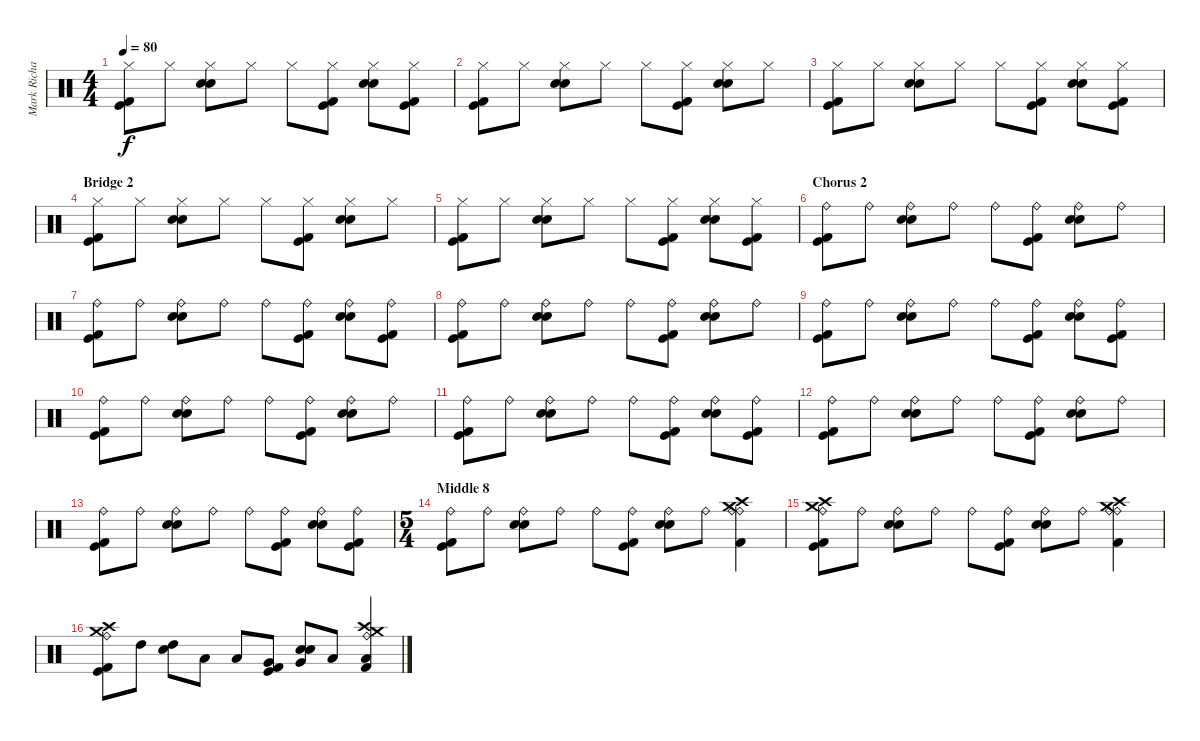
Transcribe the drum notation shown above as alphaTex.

\track ("Mark Richardson (Drums)" "Mark Richa") {instrument percussion}
\staff {score}
\articulation defaults
\ts (4 4)
\tempo 80
\clef neutral
\ks c
("Kick (hit) 2" "Kick (hit)" "Hi-Hat (closed)").8{dy f} "Hi-Hat (closed)".8 ("Electric Snare (hit)" "Snare (hit) 2" "Hi-Hat (closed)").8 "Hi-Hat (closed)".8 "Hi-Hat (closed)".8 ("Kick (hit) 2" "Kick (hit)" "Hi-Hat (closed)").8 ("Electric Snare (hit)" "Snare (hit) 2" "Hi-Hat (closed)").8 ("Kick (hit) 2" "Kick (hit)" "Hi-Hat (closed)").8 |
("Kick (hit) 2" "Kick (hit)" "Hi-Hat (closed)").8 "Hi-Hat (closed)".8 ("Electric Snare (hit)" "Snare (hit) 2" "Hi-Hat (closed)").8 "Hi-Hat (closed)".8 "Hi-Hat (closed)".8 ("Kick (hit) 2" "Kick (hit)" "Hi-Hat (closed)").8 ("Electric Snare (hit)" "Snare (hit) 2" "Hi-Hat (closed)").8 "Hi-Hat (closed)".8 |
("Kick (hit) 2" "Kick (hit)" "Hi-Hat (closed)").8 "Hi-Hat (closed)".8 ("Electric Snare (hit)" "Snare (hit) 2" "Hi-Hat (closed)").8 "Hi-Hat (closed)".8 "Hi-Hat (closed)".8 ("Kick (hit) 2" "Kick (hit)" "Hi-Hat (closed)").8 ("Electric Snare (hit)" "Snare (hit) 2" "Hi-Hat (closed)").8 ("Kick (hit) 2" "Kick (hit)" "Hi-Hat (closed)").8 |
\section ("" "Bridge 2")
("Kick (hit) 2" "Kick (hit)" "Hi-Hat (closed)").8 "Hi-Hat (closed)".8 ("Electric Snare (hit)" "Snare (hit) 2" "Hi-Hat (closed)").8 "Hi-Hat (closed)".8 "Hi-Hat (closed)".8 ("Kick (hit) 2" "Kick (hit)" "Hi-Hat (closed)").8 ("Electric Snare (hit)" "Snare (hit) 2" "Hi-Hat (closed)").8 "Hi-Hat (closed)".8 |
("Kick (hit) 2" "Kick (hit)" "Hi-Hat (closed)").8 "Hi-Hat (closed)".8 ("Electric Snare (hit)" "Snare (hit) 2" "Hi-Hat (closed)").8 "Hi-Hat (closed)".8 "Hi-Hat (closed)".8 ("Kick (hit) 2" "Kick (hit)" "Hi-Hat (closed)").8 ("Electric Snare (hit)" "Snare (hit) 2" "Hi-Hat (closed)").8 ("Kick (hit) 2" "Kick (hit)" "Hi-Hat (closed)").8 |
\section ("" "Chorus 2")
("Kick (hit) 2" "Kick (hit)" "Ride (bell)").8 "Ride (bell)".8 ("Electric Snare (hit)" "Snare (hit) 2" "Ride (bell)").8 "Ride (bell)".8 "Ride (bell)".8 ("Kick (hit) 2" "Kick (hit)" "Ride (bell)").8 ("Electric Snare (hit)" "Snare (hit) 2" "Ride (bell)").8 "Ride (bell)".8 |
("Kick (hit) 2" "Kick (hit)" "Ride (bell)").8 "Ride (bell)".8 ("Electric Snare (hit)" "Snare (hit) 2" "Ride (bell)").8 "Ride (bell)".8 "Ride (bell)".8 ("Kick (hit) 2" "Kick (hit)" "Ride (bell)").8 ("Electric Snare (hit)" "Snare (hit) 2" "Ride (bell)").8 ("Kick (hit) 2" "Kick (hit)" "Ride (bell)").8 |
("Kick (hit) 2" "Kick (hit)" "Ride (bell)").8 "Ride (bell)".8 ("Electric Snare (hit)" "Snare (hit) 2" "Ride (bell)").8 "Ride (bell)".8 "Ride (bell)".8 ("Kick (hit) 2" "Kick (hit)" "Ride (bell)").8 ("Electric Snare (hit)" "Snare (hit) 2" "Ride (bell)").8 "Ride (bell)".8 |
("Kick (hit) 2" "Kick (hit)" "Ride (bell)").8 "Ride (bell)".8 ("Electric Snare (hit)" "Snare (hit) 2" "Ride (bell)").8 "Ride (bell)".8 "Ride (bell)".8 ("Kick (hit) 2" "Kick (hit)" "Ride (bell)").8 ("Electric Snare (hit)" "Snare (hit) 2" "Ride (bell)").8 ("Kick (hit) 2" "Kick (hit)" "Ride (bell)").8 |
("Kick (hit) 2" "Kick (hit)" "Ride (bell)").8 "Ride (bell)".8 ("Electric Snare (hit)" "Snare (hit) 2" "Ride (bell)").8 "Ride (bell)".8 "Ride (bell)".8 ("Kick (hit) 2" "Kick (hit)" "Ride (bell)").8 ("Electric Snare (hit)" "Snare (hit) 2" "Ride (bell)").8 "Ride (bell)".8 |
("Kick (hit) 2" "Kick (hit)" "Ride (bell)").8 "Ride (bell)".8 ("Electric Snare (hit)" "Snare (hit) 2" "Ride (bell)").8 "Ride (bell)".8 "Ride (bell)".8 ("Kick (hit) 2" "Kick (hit)" "Ride (bell)").8 ("Electric Snare (hit)" "Snare (hit) 2" "Ride (bell)").8 ("Kick (hit) 2" "Kick (hit)" "Ride (bell)").8 |
("Kick (hit) 2" "Kick (hit)" "Ride (bell)").8 "Ride (bell)".8 ("Electric Snare (hit)" "Snare (hit) 2" "Ride (bell)").8 "Ride (bell)".8 "Ride (bell)".8 ("Kick (hit) 2" "Kick (hit)" "Ride (bell)").8 ("Electric Snare (hit)" "Snare (hit) 2" "Ride (bell)").8 "Ride (bell)".8 |
("Kick (hit) 2" "Kick (hit)" "Ride (bell)").8 "Ride (bell)".8 ("Electric Snare (hit)" "Snare (hit) 2" "Ride (bell)").8 "Ride (bell)".8 "Ride (bell)".8 ("Kick (hit) 2" "Kick (hit)" "Ride (bell)").8 ("Electric Snare (hit)" "Snare (hit) 2" "Ride (bell)").8 ("Kick (hit) 2" "Kick (hit)" "Ride (bell)").8 |
\ts (5 4)
\section ("" "Middle 8")
("Kick (hit) 2" "Kick (hit)" "Ride (bell)").8 "Ride (bell)".8 ("Electric Snare (hit)" "Snare (hit) 2" "Ride (bell)").8 "Ride (bell)".8 "Ride (bell)".8 ("Kick (hit) 2" "Kick (hit)" "Ride (bell)").8 ("Electric Snare (hit)" "Snare (hit) 2" "Ride (bell)").8 "Ride (bell)".8 ("Kick (hit) 2" "Ride (bell)" "Ride (bell)" "Crash high (hit)" "Crash medium (hit)").4 |
("Kick (hit) 2" "Kick (hit)" "Ride (bell)" "Crash high (hit)" "Crash medium (hit)").8 "Ride (bell)".8 ("Electric Snare (hit)" "Snare (hit) 2" "Ride (bell)").8 "Ride (bell)".8 "Ride (bell)".8 ("Kick (hit) 2" "Kick (hit)" "Ride (bell)").8 ("Electric Snare (hit)" "Snare (hit) 2" "Ride (bell)").8 "Ride (bell)".8 ("Kick (hit) 2" "Ride (bell)" "Ride (bell)" "Crash high (hit)" "Crash medium (hit)").4 |
("Kick (hit) 2" "Kick (hit)" "Ride (bell)" "Crash high (hit)" "Crash medium (hit)").8 "High Tom (hit)".8 ("Electric Snare (hit)" "High Tom (hit)").8 "Low Tom (hit)".8 "Low Tom (hit)".8 ("Kick (hit) 2" "Kick (hit)" "Very Low Tom (hit)").8 ("Electric Snare (hit)" "Snare (hit) 2" "Very Low Tom (hit)").8 "Low Floor Tom (hit)".8 ("Kick (hit) 2" "Ride (bell)" "Low Floor Tom (hit)" "Crash high (hit)" "Crash medium (hit)").4
